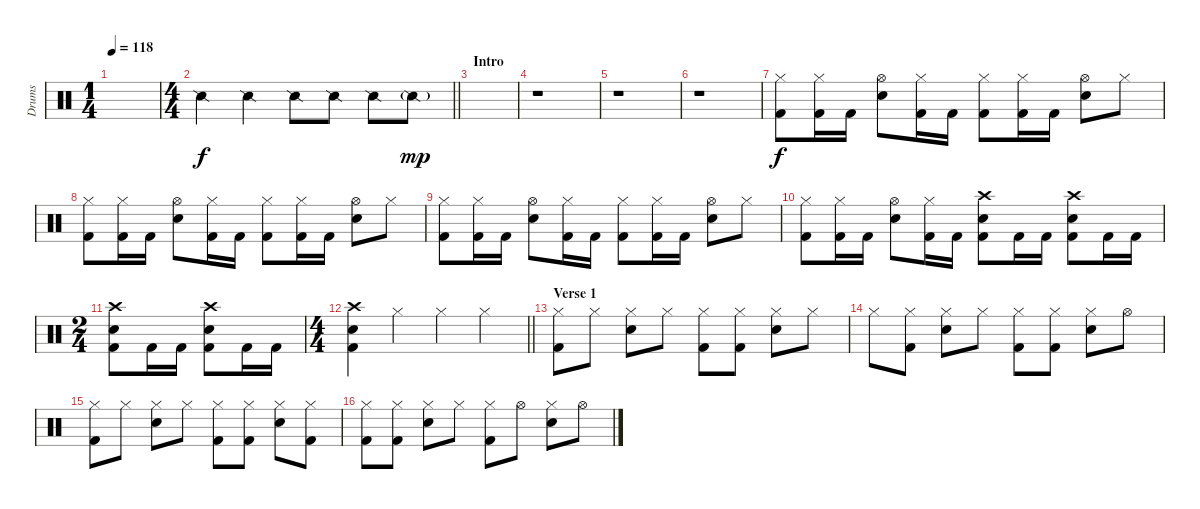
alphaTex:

\track ("Drums" "Drums") {solo instrument percussion}
\staff {score}
\articulation defaults
\ts (1 4)
\tempo 118
\clef neutral
\ks c
|
\ts (4 4)
\barLineRight lightlight "Snare (side stick) 2".4 "Snare (side stick) 2".4 "Snare (side stick) 2".8 "Snare (side stick) 2".8 "Snare (side stick) 2".8 "Snare (side stick) 2"{g}.8{dy mp}
|
\section ("" "Intro")
|
r.1 |
r.1 |
r.1 |
("Hi-Hat (closed)" "Kick (hit) 2").8{dy f} ("Hi-Hat (closed)" "Kick (hit) 2").16 "Kick (hit) 2".16 ("Hi-Hat (open)" "Snare (hit) 2").8 ("Hi-Hat (closed)" "Kick (hit) 2").16 "Kick (hit) 2".16 ("Hi-Hat (closed)" "Kick (hit) 2").8 ("Hi-Hat (closed)" "Kick (hit) 2").16 "Kick (hit) 2".16 ("Hi-Hat (open)" "Snare (hit) 2").8 "Hi-Hat (closed)".8 |
("Hi-Hat (closed)" "Kick (hit) 2").8 ("Hi-Hat (closed)" "Kick (hit) 2").16 "Kick (hit) 2".16 ("Hi-Hat (open)" "Snare (hit) 2").8 ("Hi-Hat (closed)" "Kick (hit) 2").16 "Kick (hit) 2".16 ("Hi-Hat (closed)" "Kick (hit) 2").8 ("Hi-Hat (closed)" "Kick (hit) 2").16 "Kick (hit) 2".16 ("Hi-Hat (open)" "Snare (hit) 2").8 "Hi-Hat (closed)".8 |
("Hi-Hat (closed)" "Kick (hit) 2").8 ("Hi-Hat (closed)" "Kick (hit) 2").16 "Kick (hit) 2".16 ("Hi-Hat (open)" "Snare (hit) 2").8 ("Hi-Hat (closed)" "Kick (hit) 2").16 "Kick (hit) 2".16 ("Hi-Hat (closed)" "Kick (hit) 2").8 ("Hi-Hat (closed)" "Kick (hit) 2").16 "Kick (hit) 2".16 ("Hi-Hat (open)" "Snare (hit) 2").8 "Hi-Hat (closed)".8 |
("Hi-Hat (closed)" "Kick (hit) 2").8 ("Hi-Hat (closed)" "Kick (hit) 2").16 "Kick (hit) 2".16 ("Hi-Hat (open)" "Snare (hit) 2").8 ("Hi-Hat (closed)" "Kick (hit) 2").16 "Kick (hit) 2".16 ("Crash high (hit)" "Kick (hit) 2" "Snare (hit) 2").8 "Kick (hit) 2".16 "Kick (hit) 2".16 ("Crash high (hit)" "Kick (hit) 2" "Snare (hit) 2").8 "Kick (hit) 2".16 "Kick (hit) 2".16 |
\ts (2 4)
("Crash high (hit)" "Kick (hit) 2" "Snare (hit) 2").8 "Kick (hit) 2".16 "Kick (hit) 2".16 ("Crash high (hit)" "Kick (hit) 2" "Snare (hit) 2").8 "Kick (hit) 2".16 "Kick (hit) 2".16 |
\ts (4 4)
\barLineRight lightlight
("Crash high (hit)" "Kick (hit) 2" "Snare (hit) 2").4 "Hi-Hat (closed)".4 "Hi-Hat (closed)".4 "Hi-Hat (closed)".4 |
\section ("" "Verse 1")
("Hi-Hat (closed)" "Kick (hit) 2").8 "Hi-Hat (closed)".8 ("Hi-Hat (closed)" "Snare (hit) 2").8 "Hi-Hat (closed)".8 ("Hi-Hat (closed)" "Kick (hit) 2").8 ("Hi-Hat (closed)" "Kick (hit) 2").8 ("Hi-Hat (closed)" "Snare (hit) 2").8 "Hi-Hat (closed)".8 |
"Hi-Hat (closed)".8 ("Hi-Hat (closed)" "Kick (hit) 2").8 ("Hi-Hat (closed)" "Snare (hit) 2").8 "Hi-Hat (closed)".8 ("Hi-Hat (closed)" "Kick (hit) 2").8 ("Hi-Hat (closed)" "Kick (hit) 2").8 ("Hi-Hat (closed)" "Snare (hit) 2").8 "Hi-Hat (open)".8 |
("Hi-Hat (closed)" "Kick (hit) 2").8 "Hi-Hat (closed)".8 ("Hi-Hat (closed)" "Snare (hit) 2").8 "Hi-Hat (closed)".8 ("Hi-Hat (closed)" "Kick (hit) 2").8 ("Hi-Hat (closed)" "Kick (hit) 2").8 ("Hi-Hat (closed)" "Snare (hit) 2").8 ("Hi-Hat (closed)" "Kick (hit) 2").8 |
("Hi-Hat (closed)" "Kick (hit) 2").8 ("Hi-Hat (closed)" "Kick (hit) 2").8 ("Hi-Hat (closed)" "Snare (hit) 2").8 "Hi-Hat (closed)".8 ("Hi-Hat (closed)" "Kick (hit) 2").8 "Hi-Hat (open)".8 ("Hi-Hat (closed)" "Snare (hit) 2").8 "Hi-Hat (open)".8
